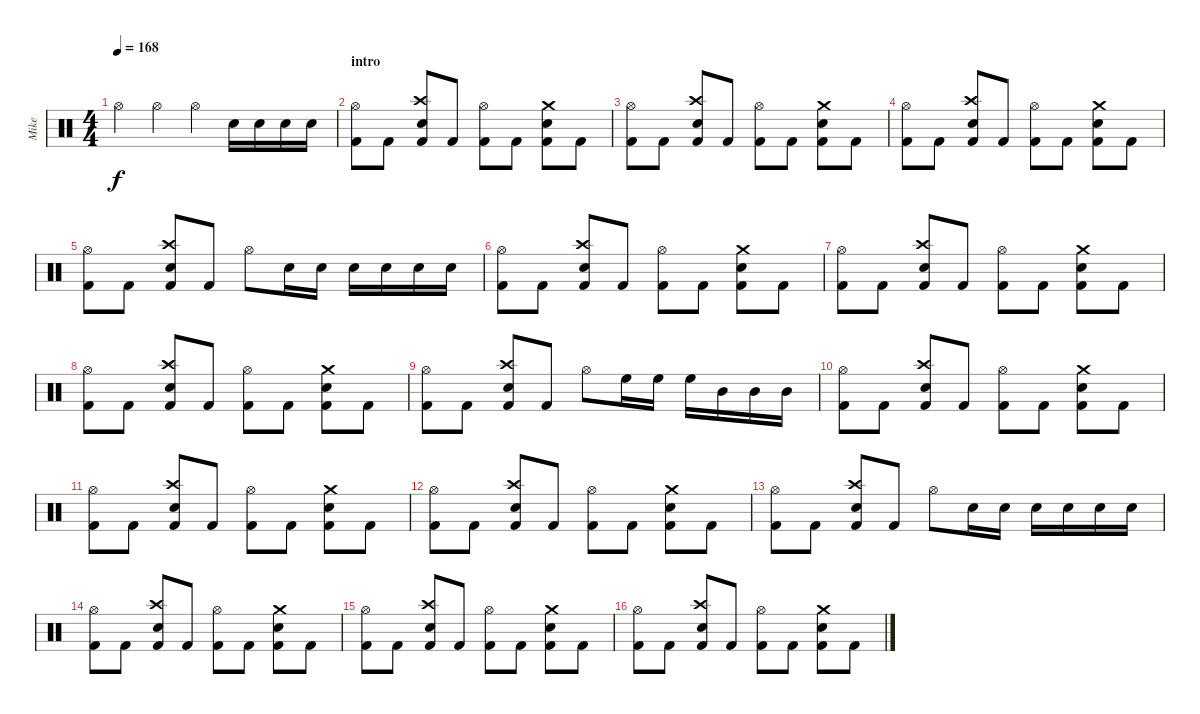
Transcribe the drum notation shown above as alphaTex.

\track ("Mike" "Mike") {instrument percussion}
\staff {score}
\articulation defaults
\ts (4 4)
\tempo 168
\clef neutral
\ks c "Hi-Hat (open)".4{dy f} "Hi-Hat (open)".4 "Hi-Hat (open)".4 "Electric Snare (hit)".16 "Electric Snare (hit)".16 "Electric Snare (hit)".16 "Electric Snare (hit)".16
|
\section ("" "intro")
("Hi-Hat (open)" "Kick (hit) 2").8 "Kick (hit) 2".8 ("Crash high (hit)" "Snare (hit) 2" "Kick (hit) 2").8 "Kick (hit) 2".8 ("Hi-Hat (open)" "Kick (hit) 2").8 "Kick (hit) 2".8 ("Crash medium (hit)" "Snare (hit) 2" "Kick (hit) 2").8 "Kick (hit) 2".8 |
("Hi-Hat (open)" "Kick (hit) 2").8 "Kick (hit) 2".8 ("Crash high (hit)" "Snare (hit) 2" "Kick (hit) 2").8 "Kick (hit) 2".8 ("Hi-Hat (open)" "Kick (hit) 2").8 "Kick (hit) 2".8 ("Crash medium (hit)" "Snare (hit) 2" "Kick (hit) 2").8 "Kick (hit) 2".8 |
("Hi-Hat (open)" "Kick (hit) 2").8 "Kick (hit) 2".8 ("Crash high (hit)" "Snare (hit) 2" "Kick (hit) 2").8 "Kick (hit) 2".8 ("Hi-Hat (open)" "Kick (hit) 2").8 "Kick (hit) 2".8 ("Crash medium (hit)" "Snare (hit) 2" "Kick (hit) 2").8 "Kick (hit) 2".8 |
("Hi-Hat (open)" "Kick (hit) 2").8 "Kick (hit) 2".8 ("Crash high (hit)" "Snare (hit) 2" "Kick (hit) 2").8 "Kick (hit) 2".8 "Hi-Hat (open)".8 "Snare (hit) 2".16 "Snare (hit) 2".16 "Snare (hit) 2".16 "Snare (hit) 2".16 "Snare (hit) 2".16 "Snare (hit) 2".16 |
("Hi-Hat (open)" "Kick (hit) 2").8 "Kick (hit) 2".8 ("Crash high (hit)" "Snare (hit) 2" "Kick (hit) 2").8 "Kick (hit) 2".8 ("Hi-Hat (open)" "Kick (hit) 2").8 "Kick (hit) 2".8 ("Crash medium (hit)" "Snare (hit) 2" "Kick (hit) 2").8 "Kick (hit) 2".8 |
("Hi-Hat (open)" "Kick (hit) 2").8 "Kick (hit) 2".8 ("Crash high (hit)" "Snare (hit) 2" "Kick (hit) 2").8 "Kick (hit) 2".8 ("Hi-Hat (open)" "Kick (hit) 2").8 "Kick (hit) 2".8 ("Crash medium (hit)" "Snare (hit) 2" "Kick (hit) 2").8 "Kick (hit) 2".8 |
("Hi-Hat (open)" "Kick (hit) 2").8 "Kick (hit) 2".8 ("Crash high (hit)" "Snare (hit) 2" "Kick (hit) 2").8 "Kick (hit) 2".8 ("Hi-Hat (open)" "Kick (hit) 2").8 "Kick (hit) 2".8 ("Crash medium (hit)" "Snare (hit) 2" "Kick (hit) 2").8 "Kick (hit) 2".8 |
("Hi-Hat (open)" "Kick (hit) 2").8 "Kick (hit) 2".8 ("Crash high (hit)" "Snare (hit) 2" "Kick (hit) 2").8 "Kick (hit) 2".8 "Hi-Hat (open)".8 "High Floor Tom (hit)".16 "High Floor Tom (hit)".16 "High Floor Tom (hit)".16 "Mid Tom (hit)".16 "Mid Tom (hit)".16 "Mid Tom (hit)".16 |
("Hi-Hat (open)" "Kick (hit) 2").8 "Kick (hit) 2".8 ("Crash high (hit)" "Snare (hit) 2" "Kick (hit) 2").8 "Kick (hit) 2".8 ("Hi-Hat (open)" "Kick (hit) 2").8 "Kick (hit) 2".8 ("Crash medium (hit)" "Snare (hit) 2" "Kick (hit) 2").8 "Kick (hit) 2".8 |
("Hi-Hat (open)" "Kick (hit) 2").8 "Kick (hit) 2".8 ("Crash high (hit)" "Snare (hit) 2" "Kick (hit) 2").8 "Kick (hit) 2".8 ("Hi-Hat (open)" "Kick (hit) 2").8 "Kick (hit) 2".8 ("Crash medium (hit)" "Snare (hit) 2" "Kick (hit) 2").8 "Kick (hit) 2".8 |
("Hi-Hat (open)" "Kick (hit) 2").8 "Kick (hit) 2".8 ("Crash high (hit)" "Snare (hit) 2" "Kick (hit) 2").8 "Kick (hit) 2".8 ("Hi-Hat (open)" "Kick (hit) 2").8 "Kick (hit) 2".8 ("Crash medium (hit)" "Snare (hit) 2" "Kick (hit) 2").8 "Kick (hit) 2".8 |
("Hi-Hat (open)" "Kick (hit) 2").8 "Kick (hit) 2".8 ("Crash high (hit)" "Snare (hit) 2" "Kick (hit) 2").8 "Kick (hit) 2".8 "Hi-Hat (open)".8 "Snare (hit) 2".16 "Snare (hit) 2".16 "Snare (hit) 2".16 "Snare (hit) 2".16 "Snare (hit) 2".16 "Snare (hit) 2".16 |
("Hi-Hat (open)" "Kick (hit) 2").8 "Kick (hit) 2".8 ("Crash high (hit)" "Snare (hit) 2" "Kick (hit) 2").8 "Kick (hit) 2".8 ("Hi-Hat (open)" "Kick (hit) 2").8 "Kick (hit) 2".8 ("Crash medium (hit)" "Snare (hit) 2" "Kick (hit) 2").8 "Kick (hit) 2".8 |
("Hi-Hat (open)" "Kick (hit) 2").8 "Kick (hit) 2".8 ("Crash high (hit)" "Snare (hit) 2" "Kick (hit) 2").8 "Kick (hit) 2".8 ("Hi-Hat (open)" "Kick (hit) 2").8 "Kick (hit) 2".8 ("Crash medium (hit)" "Snare (hit) 2" "Kick (hit) 2").8 "Kick (hit) 2".8 |
("Hi-Hat (open)" "Kick (hit) 2").8 "Kick (hit) 2".8 ("Crash high (hit)" "Snare (hit) 2" "Kick (hit) 2").8 "Kick (hit) 2".8 ("Hi-Hat (open)" "Kick (hit) 2").8 "Kick (hit) 2".8 ("Crash medium (hit)" "Snare (hit) 2" "Kick (hit) 2").8 "Kick (hit) 2".8
